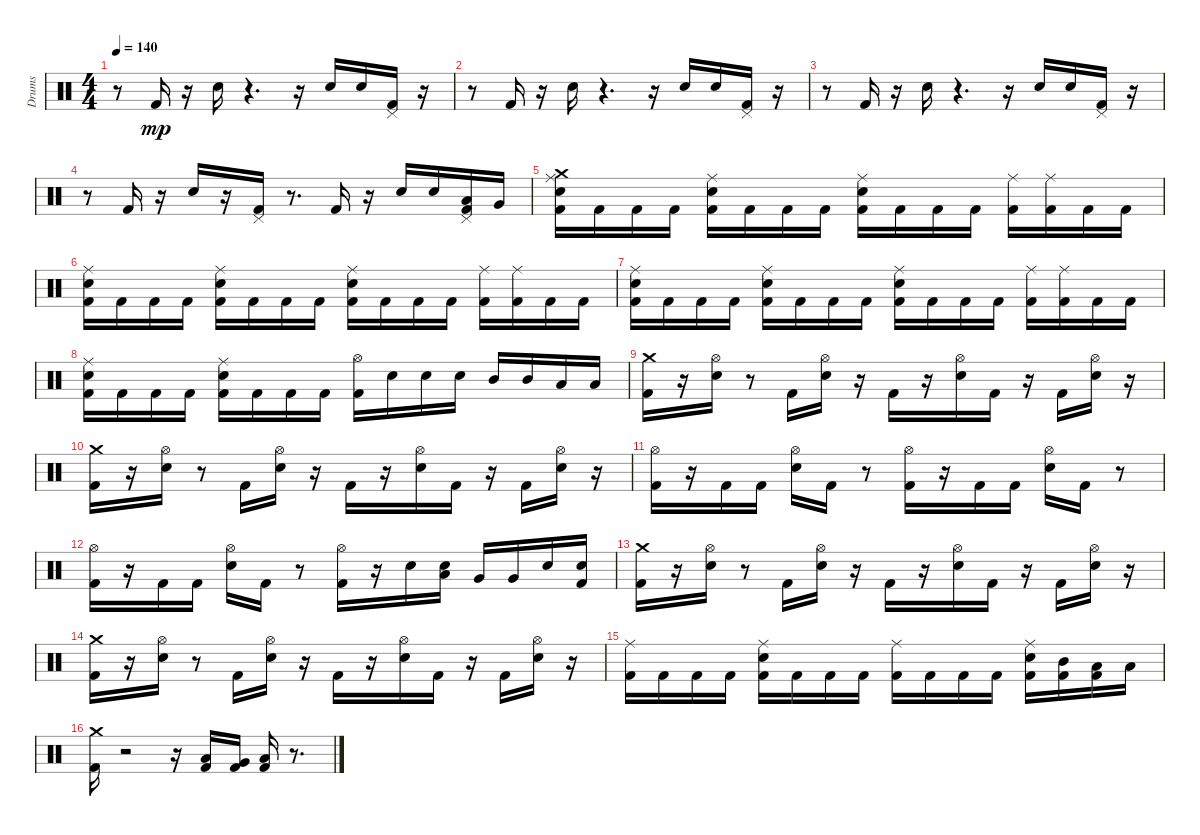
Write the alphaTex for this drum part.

\track ("Drums" "Drums") {instrument percussion}
\staff {score}
\articulation defaults
\ts (4 4)
\tempo 140
\clef neutral
\ks c
r.8{dy mp} "Kick (hit) 2".16 r.16 "Electric Snare (hit)".16 r.4{d} r.16 "Electric Snare (hit)".16 "Electric Snare (hit)".16 ("Kick (hit) 2" "Pedal Hi-Hat (hit)").16 r.16 |
r.8 "Kick (hit) 2".16 r.16 "Electric Snare (hit)".16 r.4{d} r.16 "Electric Snare (hit)".16 "Electric Snare (hit)".16 ("Pedal Hi-Hat (hit)" "Kick (hit) 2").16 r.16 |
r.8 "Kick (hit) 2".16 r.16 "Electric Snare (hit)".16 r.4{d} r.16 "Electric Snare (hit)".16 "Electric Snare (hit)".16 ("Kick (hit) 2" "Pedal Hi-Hat (hit)").16 r.16 |
r.8 "Kick (hit) 2".16 r.16 "Electric Snare (hit)".16 r.16 ("Pedal Hi-Hat (hit)" "Kick (hit) 2").16 r.8{d} "Kick (hit) 2".16 r.16 "Electric Snare (hit)".16 "Electric Snare (hit)".16 ("Kick (hit) 2" "Pedal Hi-Hat (hit)" "Low Tom (hit)").16 "Very Low Tom (hit)".16 |
("Electric Snare (hit)" "Crash medium (hit)" "Kick (hit) 2" "Ride (middle)").16 "Kick (hit) 2".16 "Kick (hit) 2".16 "Kick (hit) 2".16 ("Electric Snare (hit)" "Ride (middle)" "Kick (hit) 2").16 "Kick (hit) 2".16 "Kick (hit) 2".16 "Kick (hit) 2".16 ("Ride (middle)" "Kick (hit) 2" "Electric Snare (hit)").16 "Kick (hit) 2".16 "Kick (hit) 2".16 "Kick (hit) 2".16 ("Ride (middle)" "Kick (hit) 2").16 ("Kick (hit) 2" "Ride (middle)").16 "Kick (hit) 2".16 "Kick (hit) 2".16 |
("Electric Snare (hit)" "Ride (middle)" "Kick (hit) 2").16 "Kick (hit) 2".16 "Kick (hit) 2".16 "Kick (hit) 2".16 ("Electric Snare (hit)" "Ride (middle)" "Kick (hit) 2").16 "Kick (hit) 2".16 "Kick (hit) 2".16 "Kick (hit) 2".16 ("Electric Snare (hit)" "Ride (middle)" "Kick (hit) 2").16 "Kick (hit) 2".16 "Kick (hit) 2".16 "Kick (hit) 2".16 ("Ride (middle)" "Kick (hit) 2").16 ("Kick (hit) 2" "Ride (middle)").16 "Kick (hit) 2".16 "Kick (hit) 2".16 |
("Kick (hit) 2" "Electric Snare (hit)" "Ride (middle)").16 "Kick (hit) 2".16 "Kick (hit) 2".16 "Kick (hit) 2".16 ("Kick (hit) 2" "Electric Snare (hit)" "Ride (middle)").16 "Kick (hit) 2".16 "Kick (hit) 2".16 "Kick (hit) 2".16 ("Ride (middle)" "Electric Snare (hit)" "Kick (hit) 2").16 "Kick (hit) 2".16 "Kick (hit) 2".16 "Kick (hit) 2".16 ("Ride (middle)" "Kick (hit) 2").16 ("Kick (hit) 2" "Ride (middle)").16 "Kick (hit) 2".16 "Kick (hit) 2".16 |
("Ride (middle)" "Electric Snare (hit)" "Kick (hit) 2").16 "Kick (hit) 2".16 "Kick (hit) 2".16 "Kick (hit) 2".16 ("Ride (middle)" "Kick (hit) 2" "Electric Snare (hit)").16 "Kick (hit) 2".16 "Kick (hit) 2".16 "Kick (hit) 2".16 ("Hi-Hat (open)" "Kick (hit) 2").16 "Electric Snare (hit)".16 "Electric Snare (hit)".16 "Electric Snare (hit)".16 "Mid Tom (hit)".16 "Mid Tom (hit)".16 "Low Tom (hit)".16 "Low Tom (hit)".16 |
("Kick (hit) 2" "Crash medium (hit)").16 r.16 ("Hi-Hat (open)" "Electric Snare (hit)").16 r.8 "Kick (hit) 2".16 ("Hi-Hat (open)" "Electric Snare (hit)").16 r.16 "Kick (hit) 2".16 r.16 ("Hi-Hat (open)" "Electric Snare (hit)").16 "Kick (hit) 2".16 r.16 "Kick (hit) 2".16 ("Hi-Hat (open)" "Electric Snare (hit)").16 r.16 |
("Kick (hit) 2" "Crash medium (hit)").16 r.16 ("Electric Snare (hit)" "Hi-Hat (open)").16 r.8 "Kick (hit) 2".16 ("Hi-Hat (open)" "Electric Snare (hit)").16 r.16 "Kick (hit) 2".16 r.16 ("Electric Snare (hit)" "Hi-Hat (open)").16 "Kick (hit) 2".16 r.16 "Kick (hit) 2".16 ("Electric Snare (hit)" "Hi-Hat (open)").16 r.16 |
("Kick (hit) 2" "Hi-Hat (open)").16 r.16 "Kick (hit) 2".16 "Kick (hit) 2".16 ("Hi-Hat (open)" "Electric Snare (hit)").16 "Kick (hit) 2".16 r.8 ("Hi-Hat (open)" "Kick (hit) 2").16 r.16 "Kick (hit) 2".16 "Kick (hit) 2".16 ("Hi-Hat (open)" "Electric Snare (hit)").16 "Kick (hit) 2".16 r.8 |
("Hi-Hat (open)" "Kick (hit) 2").16 r.16 "Kick (hit) 2".16 "Kick (hit) 2".16 ("Electric Snare (hit)" "Hi-Hat (open)").16 "Kick (hit) 2".16 r.8 ("Hi-Hat (open)" "Kick (hit) 2").16 r.16 "Electric Snare (hit)".16 ("Electric Snare (hit)" "Low Tom (hit)").16 "Very Low Tom (hit)".16 "Very Low Tom (hit)".16 "Electric Snare (hit)".16 ("Electric Snare (hit)" "Kick (hit) 2").16 |
("Crash medium (hit)" "Kick (hit) 2").16 r.16 ("Electric Snare (hit)" "Hi-Hat (open)").16 r.8 "Kick (hit) 2".16 ("Hi-Hat (open)" "Electric Snare (hit)").16 r.16 "Kick (hit) 2".16 r.16 ("Electric Snare (hit)" "Hi-Hat (open)").16 "Kick (hit) 2".16 r.16 "Kick (hit) 2".16 ("Electric Snare (hit)" "Hi-Hat (open)").16 r.16 |
("Crash medium (hit)" "Kick (hit) 2").16 r.16 ("Hi-Hat (open)" "Electric Snare (hit)").16 r.8 "Kick (hit) 2".16 ("Hi-Hat (open)" "Electric Snare (hit)").16 r.16 "Kick (hit) 2".16 r.16 ("Hi-Hat (open)" "Electric Snare (hit)").16 "Kick (hit) 2".16 r.16 "Kick (hit) 2".16 ("Electric Snare (hit)" "Hi-Hat (open)").16 r.16 |
("Ride (middle)" "Kick (hit) 2").16 "Kick (hit) 2".16 "Kick (hit) 2".16 "Kick (hit) 2".16 ("Ride (middle)" "Electric Snare (hit)" "Kick (hit) 2").16 "Kick (hit) 2".16 "Kick (hit) 2".16 "Kick (hit) 2".16 ("Kick (hit) 2" "Ride (middle)").16 "Kick (hit) 2".16 "Kick (hit) 2".16 "Kick (hit) 2".16 ("Electric Snare (hit)" "Kick (hit) 2" "Ride (middle)").16 ("Mid Tom (hit)" "Kick (hit) 2").16 ("Low Tom (hit)" "Kick (hit) 2").16 "Low Floor Tom (hit)".16 |
("Kick (hit) 2" "Crash medium (hit)").16 r.2 r.16 ("Kick (hit) 2" "Low Tom (hit)").16 ("Very Low Tom (hit)" "Kick (hit) 2").16 ("Low Floor Tom (hit)" "Kick (hit) 2").16 r.8{d}
